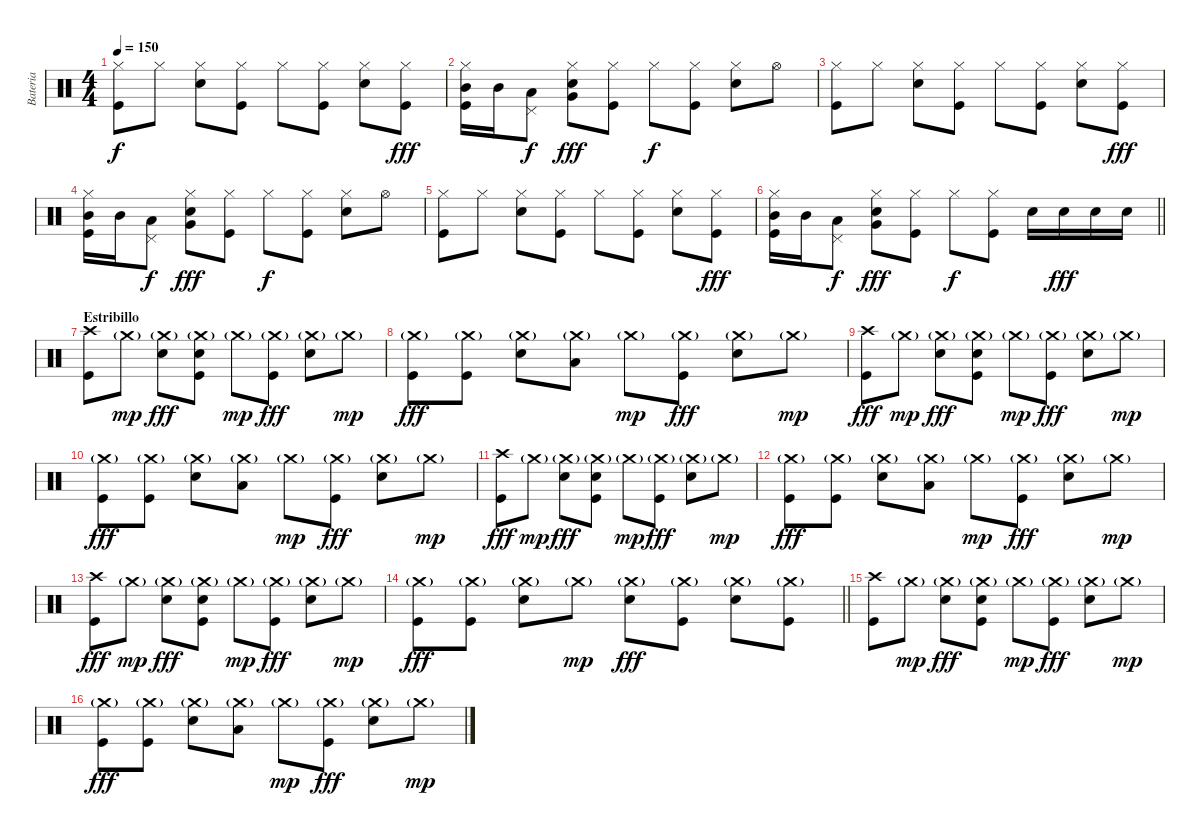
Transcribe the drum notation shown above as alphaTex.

\track ("Bateria" "Bateria") {instrument percussion}
\staff {score}
\articulation defaults
\ts (4 4)
\tempo 150
\clef neutral
\ks c
("Hi-Hat (closed)" "Kick (hit)").8{dy f} "Hi-Hat (closed)".8 ("Hi-Hat (closed)" "Electric Snare (hit)").8 ("Hi-Hat (closed)" "Kick (hit)").8 "Hi-Hat (closed)".8 ("Hi-Hat (closed)" "Kick (hit)").8 ("Hi-Hat (closed)" "Electric Snare (hit)").8 ("Hi-Hat (closed)" "Kick (hit)").8{dy fff} |
("Hi-Hat (closed)" "Kick (hit)" "Mid Tom (hit)").16 "Mid Tom (hit)".16 ("Pedal Hi-Hat (hit)" "Low Tom (hit)").8{dy f} ("Hi-Hat (closed)" "Very Low Tom (hit)" "Electric Snare (hit)").8{dy fff} ("Hi-Hat (closed)" "Kick (hit)").8 "Hi-Hat (closed)".8{dy f} ("Hi-Hat (closed)" "Kick (hit)").8 ("Hi-Hat (closed)" "Electric Snare (hit)").8 "Hi-Hat (open)".8 |
("Hi-Hat (closed)" "Kick (hit)").8 "Hi-Hat (closed)".8 ("Hi-Hat (closed)" "Electric Snare (hit)").8 ("Hi-Hat (closed)" "Kick (hit)").8 "Hi-Hat (closed)".8 ("Hi-Hat (closed)" "Kick (hit)").8 ("Hi-Hat (closed)" "Electric Snare (hit)").8 ("Hi-Hat (closed)" "Kick (hit)").8{dy fff} |
("Hi-Hat (closed)" "Kick (hit)" "Mid Tom (hit)").16 "Mid Tom (hit)".16 ("Pedal Hi-Hat (hit)" "Low Tom (hit)").8{dy f} ("Hi-Hat (closed)" "Very Low Tom (hit)" "Electric Snare (hit)").8{dy fff} ("Hi-Hat (closed)" "Kick (hit)").8 "Hi-Hat (closed)".8{dy f} ("Hi-Hat (closed)" "Kick (hit)").8 ("Hi-Hat (closed)" "Electric Snare (hit)").8 "Hi-Hat (open)".8 |
("Hi-Hat (closed)" "Kick (hit)").8 "Hi-Hat (closed)".8 ("Hi-Hat (closed)" "Electric Snare (hit)").8 ("Hi-Hat (closed)" "Kick (hit)").8 "Hi-Hat (closed)".8 ("Hi-Hat (closed)" "Kick (hit)").8 ("Hi-Hat (closed)" "Electric Snare (hit)").8 ("Hi-Hat (closed)" "Kick (hit)").8{dy fff} |
\barLineRight lightlight
("Hi-Hat (closed)" "Kick (hit)" "Mid Tom (hit)").16 "Mid Tom (hit)".16 ("Pedal Hi-Hat (hit)" "Low Tom (hit)").8{dy f} ("Hi-Hat (closed)" "Very Low Tom (hit)" "Electric Snare (hit)").8{dy fff} ("Hi-Hat (closed)" "Kick (hit)").8 "Hi-Hat (closed)".8{dy f} ("Hi-Hat (closed)" "Kick (hit)").8 "Electric Snare (hit)".16 "Electric Snare (hit)".16{dy fff} "Electric Snare (hit)".16 "Electric Snare (hit)".16 |
\section ("" "Estribillo")
("Crash high (hit)" "Kick (hit)").8 "Crash medium (hit)"{g}.8{dy mp} ("Crash medium (hit)"{g} "Electric Snare (hit)").8{dy fff} ("Crash medium (hit)"{g} "Electric Snare (hit)" "Kick (hit)").8 "Crash medium (hit)"{g}.8{dy mp} ("Crash medium (hit)"{g} "Kick (hit)").8{dy fff} ("Crash medium (hit)"{g} "Electric Snare (hit)").8 "Crash medium (hit)"{g}.8{dy mp} |
("Crash medium (hit)"{g} "Kick (hit)").8{dy fff} ("Crash medium (hit)"{g} "Kick (hit)").8 ("Crash medium (hit)"{g} "Electric Snare (hit)").8 ("Crash medium (hit)"{g} "Low Tom (hit)").8 "Crash medium (hit)"{g}.8{dy mp} ("Crash medium (hit)"{g} "Kick (hit)").8{dy fff} ("Crash medium (hit)"{g} "Electric Snare (hit)").8 "Crash medium (hit)"{g}.8{dy mp} |
("Crash high (hit)" "Kick (hit)").8{dy fff} "Crash medium (hit)"{g}.8{dy mp} ("Crash medium (hit)"{g} "Electric Snare (hit)").8{dy fff} ("Crash medium (hit)"{g} "Electric Snare (hit)" "Kick (hit)").8 "Crash medium (hit)"{g}.8{dy mp} ("Crash medium (hit)"{g} "Kick (hit)").8{dy fff} ("Crash medium (hit)"{g} "Electric Snare (hit)").8 "Crash medium (hit)"{g}.8{dy mp} |
("Crash medium (hit)"{g} "Kick (hit)").8{dy fff} ("Crash medium (hit)"{g} "Kick (hit)").8 ("Crash medium (hit)"{g} "Electric Snare (hit)").8 ("Crash medium (hit)"{g} "Low Tom (hit)").8 "Crash medium (hit)"{g}.8{dy mp} ("Crash medium (hit)"{g} "Kick (hit)").8{dy fff} ("Crash medium (hit)"{g} "Electric Snare (hit)").8 "Crash medium (hit)"{g}.8{dy mp} |
("Crash high (hit)" "Kick (hit)").8{dy fff} "Crash medium (hit)"{g}.8{dy mp} ("Crash medium (hit)"{g} "Electric Snare (hit)").8{dy fff} ("Crash medium (hit)"{g} "Electric Snare (hit)" "Kick (hit)").8 "Crash medium (hit)"{g}.8{dy mp} ("Crash medium (hit)"{g} "Kick (hit)").8{dy fff} ("Crash medium (hit)"{g} "Electric Snare (hit)").8 "Crash medium (hit)"{g}.8{dy mp} |
("Crash medium (hit)"{g} "Kick (hit)").8{dy fff} ("Crash medium (hit)"{g} "Kick (hit)").8 ("Crash medium (hit)"{g} "Electric Snare (hit)").8 ("Crash medium (hit)"{g} "Low Tom (hit)").8 "Crash medium (hit)"{g}.8{dy mp} ("Crash medium (hit)"{g} "Kick (hit)").8{dy fff} ("Crash medium (hit)"{g} "Electric Snare (hit)").8 "Crash medium (hit)"{g}.8{dy mp} |
("Crash high (hit)" "Kick (hit)").8{dy fff} "Crash medium (hit)"{g}.8{dy mp} ("Crash medium (hit)"{g} "Electric Snare (hit)").8{dy fff} ("Crash medium (hit)"{g} "Electric Snare (hit)" "Kick (hit)").8 "Crash medium (hit)"{g}.8{dy mp} ("Crash medium (hit)"{g} "Kick (hit)").8{dy fff} ("Crash medium (hit)"{g} "Electric Snare (hit)").8 "Crash medium (hit)"{g}.8{dy mp} |
\barLineRight lightlight
("Crash medium (hit)"{g} "Kick (hit)").8{dy fff} ("Crash medium (hit)"{g} "Kick (hit)").8 ("Crash medium (hit)"{g} "Electric Snare (hit)").8 "Crash medium (hit)"{g}.8{dy mp} ("Crash medium (hit)"{g} "Electric Snare (hit)").8{dy fff} ("Crash medium (hit)"{g} "Kick (hit)").8 ("Crash medium (hit)"{g} "Electric Snare (hit)").8 ("Crash medium (hit)"{g} "Kick (hit)").8 |
("Crash high (hit)" "Kick (hit)").8 "Crash medium (hit)"{g}.8{dy mp} ("Crash medium (hit)"{g} "Electric Snare (hit)").8{dy fff} ("Crash medium (hit)"{g} "Electric Snare (hit)" "Kick (hit)").8 "Crash medium (hit)"{g}.8{dy mp} ("Crash medium (hit)"{g} "Kick (hit)").8{dy fff} ("Crash medium (hit)"{g} "Electric Snare (hit)").8 "Crash medium (hit)"{g}.8{dy mp} |
("Crash medium (hit)"{g} "Kick (hit)").8{dy fff} ("Crash medium (hit)"{g} "Kick (hit)").8 ("Crash medium (hit)"{g} "Electric Snare (hit)").8 ("Crash medium (hit)"{g} "Low Tom (hit)").8 "Crash medium (hit)"{g}.8{dy mp} ("Crash medium (hit)"{g} "Kick (hit)").8{dy fff} ("Crash medium (hit)"{g} "Electric Snare (hit)").8 "Crash medium (hit)"{g}.8{dy mp}
